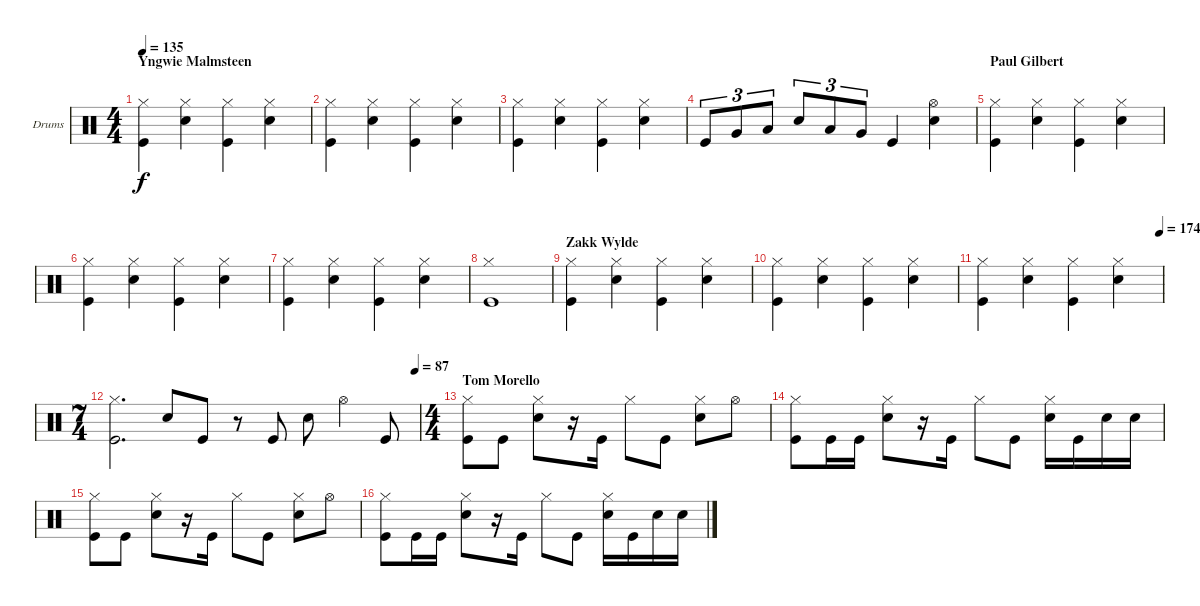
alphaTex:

\defaultSystemsLayout 4
\bracketExtendMode groupsimilarinstruments
\firstSystemTrackNameOrientation horizontal
\otherSystemsTrackNameOrientation horizontal
\track ("Drumkit" "Drums") {instrument percussion}
\staff {score}
\articulation defaults
\ts (4 4)
\section ("" "Yngwie Malmsteen")
\tempo 135
\clef neutral
\ks c
("Hi-Hat (closed)" "Kick (hit)").4{dy f} ("Hi-Hat (closed)" "Snare (hit) 2").4 ("Hi-Hat (closed)" "Kick (hit)").4 ("Hi-Hat (closed)" "Snare (hit) 2").4 |
("Hi-Hat (closed)" "Kick (hit)").4 ("Hi-Hat (closed)" "Snare (hit) 2").4 ("Hi-Hat (closed)" "Kick (hit)").4 ("Hi-Hat (closed)" "Snare (hit) 2").4 |
("Hi-Hat (closed)" "Kick (hit)").4 ("Hi-Hat (closed)" "Snare (hit) 2").4 ("Hi-Hat (closed)" "Kick (hit)").4 ("Hi-Hat (closed)" "Snare (hit) 2").4 |
"Kick (hit)".8{tu (3 2)} "Very Low Tom (hit)".8{tu (3 2)} "Low Tom (hit)".8{tu (3 2)} "Snare (hit) 2".8{tu (3 2)} "Low Tom (hit)".8{tu (3 2)} "Very Low Tom (hit)".8{tu (3 2)} "Kick (hit)".4 ("Hi-Hat (open)" "Snare (hit) 2").4 |
\section ("" "Paul Gilbert")
("Hi-Hat (closed)" "Kick (hit)").4 ("Hi-Hat (closed)" "Snare (hit) 2").4 ("Hi-Hat (closed)" "Kick (hit)").4 ("Hi-Hat (closed)" "Snare (hit) 2").4 |
("Hi-Hat (closed)" "Kick (hit)").4 ("Hi-Hat (closed)" "Snare (hit) 2").4 ("Hi-Hat (closed)" "Kick (hit)").4 ("Hi-Hat (closed)" "Snare (hit) 2").4 |
("Hi-Hat (closed)" "Kick (hit)").4 ("Hi-Hat (closed)" "Snare (hit) 2").4 ("Hi-Hat (closed)" "Kick (hit)").4 ("Hi-Hat (closed)" "Snare (hit) 2").4 |
("Hi-Hat (closed)" "Kick (hit)").1 |
\section ("" "Zakk Wylde")
("Hi-Hat (closed)" "Kick (hit)").4 ("Hi-Hat (closed)" "Snare (hit) 2").4 ("Hi-Hat (closed)" "Kick (hit)").4 ("Hi-Hat (closed)" "Snare (hit) 2").4 |
("Hi-Hat (closed)" "Kick (hit)").4 ("Hi-Hat (closed)" "Snare (hit) 2").4 ("Hi-Hat (closed)" "Kick (hit)").4 ("Hi-Hat (closed)" "Snare (hit) 2").4 |
\tempo (174 0.9875)
("Hi-Hat (closed)" "Kick (hit)").4 ("Hi-Hat (closed)" "Snare (hit) 2").4 ("Hi-Hat (closed)" "Kick (hit)").4 ("Hi-Hat (closed)" "Snare (hit) 2").4 |
\ts (7 4)
\tempo (87 0.9875)
("Hi-Hat (closed)" "Kick (hit)").2{d} "Snare (hit) 2".8 "Kick (hit)".8 r.8 "Kick (hit)".8 "Snare (hit) 2".8 "Hi-Hat (open)".4 "Kick (hit)".8 |
\ts (4 4)
\section ("" "Tom Morello")
("Hi-Hat (closed)" "Kick (hit)").8 "Kick (hit)".8 ("Hi-Hat (closed)" "Snare (hit) 2").8 r.16 "Kick (hit)".16 "Hi-Hat (closed)".8 "Kick (hit)".8 ("Hi-Hat (closed)" "Snare (hit) 2").8 "Hi-Hat (open)".8 |
("Hi-Hat (closed)" "Kick (hit)").8 "Kick (hit)".16 "Kick (hit)".16 ("Hi-Hat (closed)" "Snare (hit) 2").8 r.16 "Kick (hit)".16 "Hi-Hat (closed)".8 "Kick (hit)".8 ("Hi-Hat (closed)" "Snare (hit) 2").16 "Kick (hit)".16 "Snare (hit) 2".16 "Snare (hit) 2".16 |
("Hi-Hat (closed)" "Kick (hit)").8 "Kick (hit)".8 ("Hi-Hat (closed)" "Snare (hit) 2").8 r.16 "Kick (hit)".16 "Hi-Hat (closed)".8 "Kick (hit)".8 ("Hi-Hat (closed)" "Snare (hit) 2").8 "Hi-Hat (open)".8 |
("Hi-Hat (closed)" "Kick (hit)").8 "Kick (hit)".16 "Kick (hit)".16 ("Hi-Hat (closed)" "Snare (hit) 2").8 r.16 "Kick (hit)".16 "Hi-Hat (closed)".8 "Kick (hit)".8 ("Hi-Hat (closed)" "Snare (hit) 2").16 "Kick (hit)".16 "Snare (hit) 2".16 "Snare (hit) 2".16
